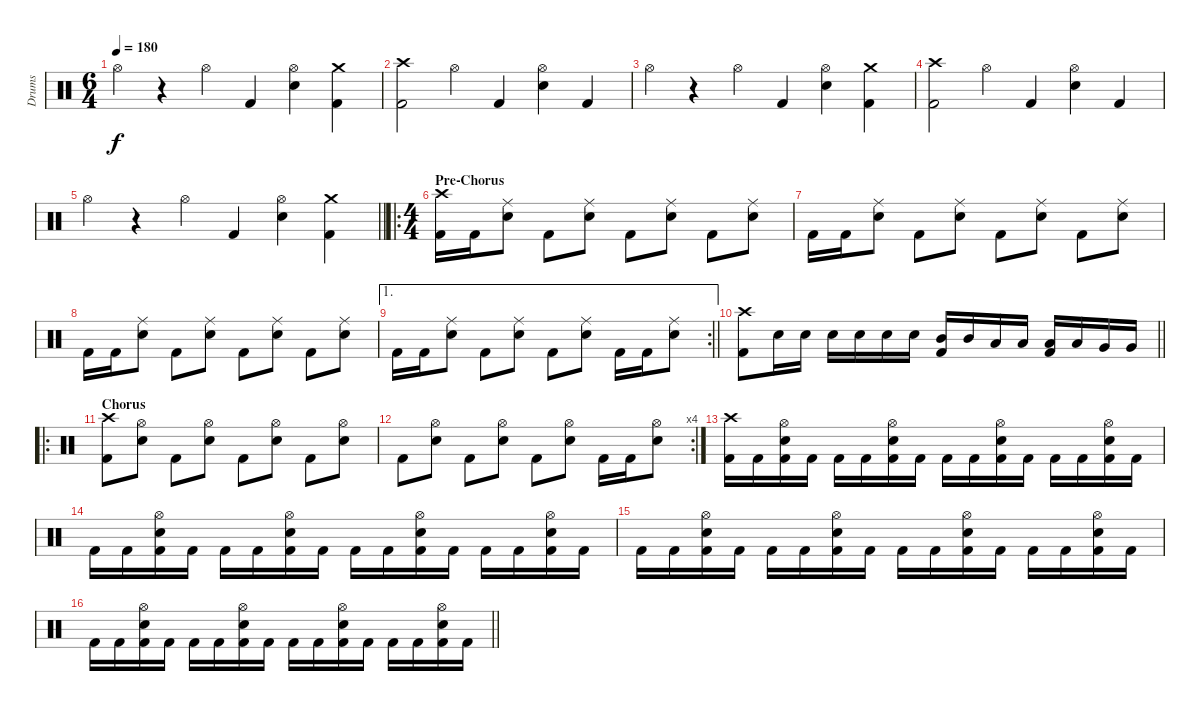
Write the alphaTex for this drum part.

\track ("Drums" "Drums") {instrument percussion}
\staff {score}
\articulation defaults
\ts (6 4)
\tempo 180
\clef neutral
\ks c "Hi-Hat (open)".4{dy f}
r.4 "Hi-Hat (open)".4 "Kick (hit) 2".4 ("Electric Snare (hit)" "Hi-Hat (open)").4 ("Kick (hit) 2" "Crash medium (hit)").4 |
("Kick (hit) 2" "Crash high (hit)").2 "Hi-Hat (open)".4 "Kick (hit) 2".4 ("Electric Snare (hit)" "Hi-Hat (open)").4 "Kick (hit) 2".4 |
"Hi-Hat (open)".4 r.4 "Hi-Hat (open)".4 "Kick (hit) 2".4 ("Electric Snare (hit)" "Hi-Hat (open)").4 ("Kick (hit) 2" "Crash medium (hit)").4 |
("Kick (hit) 2" "Crash high (hit)").2 "Hi-Hat (open)".4 "Kick (hit) 2".4 ("Electric Snare (hit)" "Hi-Hat (open)").4 "Kick (hit) 2".4 |
\barLineRight lightlight "Hi-Hat (open)".4
r.4 "Hi-Hat (open)".4 "Kick (hit) 2".4 ("Electric Snare (hit)" "Hi-Hat (open)").4 ("Kick (hit) 2" "Crash medium (hit)").4 |
\ro
\ts (4 4)
\section ("" "Pre-Chorus")
("Kick (hit) 2" "Crash high (hit)").16 "Kick (hit) 2".16 ("Electric Snare (hit)" "Ride (middle)").8 "Kick (hit) 2".8 ("Electric Snare (hit)" "Ride (middle)").8 "Kick (hit) 2".8 ("Electric Snare (hit)" "Ride (middle)").8 "Kick (hit) 2".8 ("Electric Snare (hit)" "Ride (middle)").8 |
"Kick (hit) 2".16 "Kick (hit) 2".16 ("Electric Snare (hit)" "Ride (middle)").8 "Kick (hit) 2".8 ("Electric Snare (hit)" "Ride (middle)").8 "Kick (hit) 2".8 ("Electric Snare (hit)" "Ride (middle)").8 "Kick (hit) 2".8 ("Electric Snare (hit)" "Ride (middle)").8 |
"Kick (hit) 2".16 "Kick (hit) 2".16 ("Electric Snare (hit)" "Ride (middle)").8 "Kick (hit) 2".8 ("Electric Snare (hit)" "Ride (middle)").8 "Kick (hit) 2".8 ("Electric Snare (hit)" "Ride (middle)").8 "Kick (hit) 2".8 ("Electric Snare (hit)" "Ride (middle)").8 |
\ae 1
\rc 2
\barLineRight lightlight "Kick (hit) 2".16 "Kick (hit) 2".16
("Electric Snare (hit)" "Ride (middle)").8 "Kick (hit) 2".8 ("Electric Snare (hit)" "Ride (middle)").8 "Kick (hit) 2".8 ("Electric Snare (hit)" "Ride (middle)").8 "Kick (hit) 2".16 "Kick (hit) 2".16 ("Electric Snare (hit)" "Ride (middle)").8 |
\barLineRight lightlight
("Kick (hit) 2" "Crash high (hit)").8 "Electric Snare (hit)".16 "Electric Snare (hit)".16 "Electric Snare (hit)".16 "Electric Snare (hit)".16 "Electric Snare (hit)".16 "Electric Snare (hit)".16 ("Mid Tom (hit)" "Kick (hit) 2").16 "Mid Tom (hit)".16 "Low Tom (hit)".16 "Low Tom (hit)".16 ("Low Tom (hit)" "Kick (hit) 2").16 "Low Tom (hit)".16 "Very Low Tom (hit)".16 "Very Low Tom (hit)".16 |
\ro
\section ("" "Chorus")
("Kick (hit) 2" "Crash high (hit)").8 ("Electric Snare (hit)" "Hi-Hat (open)").8 "Kick (hit) 2".8 ("Electric Snare (hit)" "Hi-Hat (open)").8 "Kick (hit) 2".8 ("Electric Snare (hit)" "Hi-Hat (open)").8 "Kick (hit) 2".8 ("Electric Snare (hit)" "Hi-Hat (open)").8 |
\rc 4 "Kick (hit) 2".8
("Electric Snare (hit)" "Hi-Hat (open)").8 "Kick (hit) 2".8 ("Electric Snare (hit)" "Hi-Hat (open)").8 "Kick (hit) 2".8 ("Electric Snare (hit)" "Hi-Hat (open)").8 "Kick (hit) 2".16 "Kick (hit) 2".16 ("Electric Snare (hit)" "Hi-Hat (open)").8 |
("Kick (hit) 2" "Crash high (hit)").16 "Kick (hit) 2".16 ("Kick (hit) 2" "Electric Snare (hit)" "Hi-Hat (open)").16 "Kick (hit) 2".16 "Kick (hit) 2".16 "Kick (hit) 2".16 ("Kick (hit) 2" "Electric Snare (hit)" "Hi-Hat (open)").16 "Kick (hit) 2".16 "Kick (hit) 2".16 "Kick (hit) 2".16 ("Kick (hit) 2" "Electric Snare (hit)" "Hi-Hat (open)").16 "Kick (hit) 2".16 "Kick (hit) 2".16 "Kick (hit) 2".16 ("Kick (hit) 2" "Electric Snare (hit)" "Hi-Hat (open)").16 "Kick (hit) 2".16 |
"Kick (hit) 2".16 "Kick (hit) 2".16 ("Kick (hit) 2" "Electric Snare (hit)" "Hi-Hat (open)").16 "Kick (hit) 2".16 "Kick (hit) 2".16 "Kick (hit) 2".16 ("Kick (hit) 2" "Electric Snare (hit)" "Hi-Hat (open)").16 "Kick (hit) 2".16 "Kick (hit) 2".16 "Kick (hit) 2".16 ("Kick (hit) 2" "Electric Snare (hit)" "Hi-Hat (open)").16 "Kick (hit) 2".16 "Kick (hit) 2".16 "Kick (hit) 2".16 ("Kick (hit) 2" "Electric Snare (hit)" "Hi-Hat (open)").16 "Kick (hit) 2".16 |
"Kick (hit) 2".16 "Kick (hit) 2".16 ("Kick (hit) 2" "Electric Snare (hit)" "Hi-Hat (open)").16 "Kick (hit) 2".16 "Kick (hit) 2".16 "Kick (hit) 2".16 ("Kick (hit) 2" "Electric Snare (hit)" "Hi-Hat (open)").16 "Kick (hit) 2".16 "Kick (hit) 2".16 "Kick (hit) 2".16 ("Kick (hit) 2" "Electric Snare (hit)" "Hi-Hat (open)").16 "Kick (hit) 2".16 "Kick (hit) 2".16 "Kick (hit) 2".16 ("Kick (hit) 2" "Electric Snare (hit)" "Hi-Hat (open)").16 "Kick (hit) 2".16 |
\barLineRight lightlight "Kick (hit) 2".16 "Kick (hit) 2".16
("Kick (hit) 2" "Electric Snare (hit)" "Hi-Hat (open)").16 "Kick (hit) 2".16 "Kick (hit) 2".16 "Kick (hit) 2".16 ("Kick (hit) 2" "Electric Snare (hit)" "Hi-Hat (open)").16 "Kick (hit) 2".16 "Kick (hit) 2".16 "Kick (hit) 2".16 ("Kick (hit) 2" "Electric Snare (hit)" "Hi-Hat (open)").16 "Kick (hit) 2".16 "Kick (hit) 2".16 "Kick (hit) 2".16 ("Kick (hit) 2" "Electric Snare (hit)" "Hi-Hat (open)").16 "Kick (hit) 2".16
